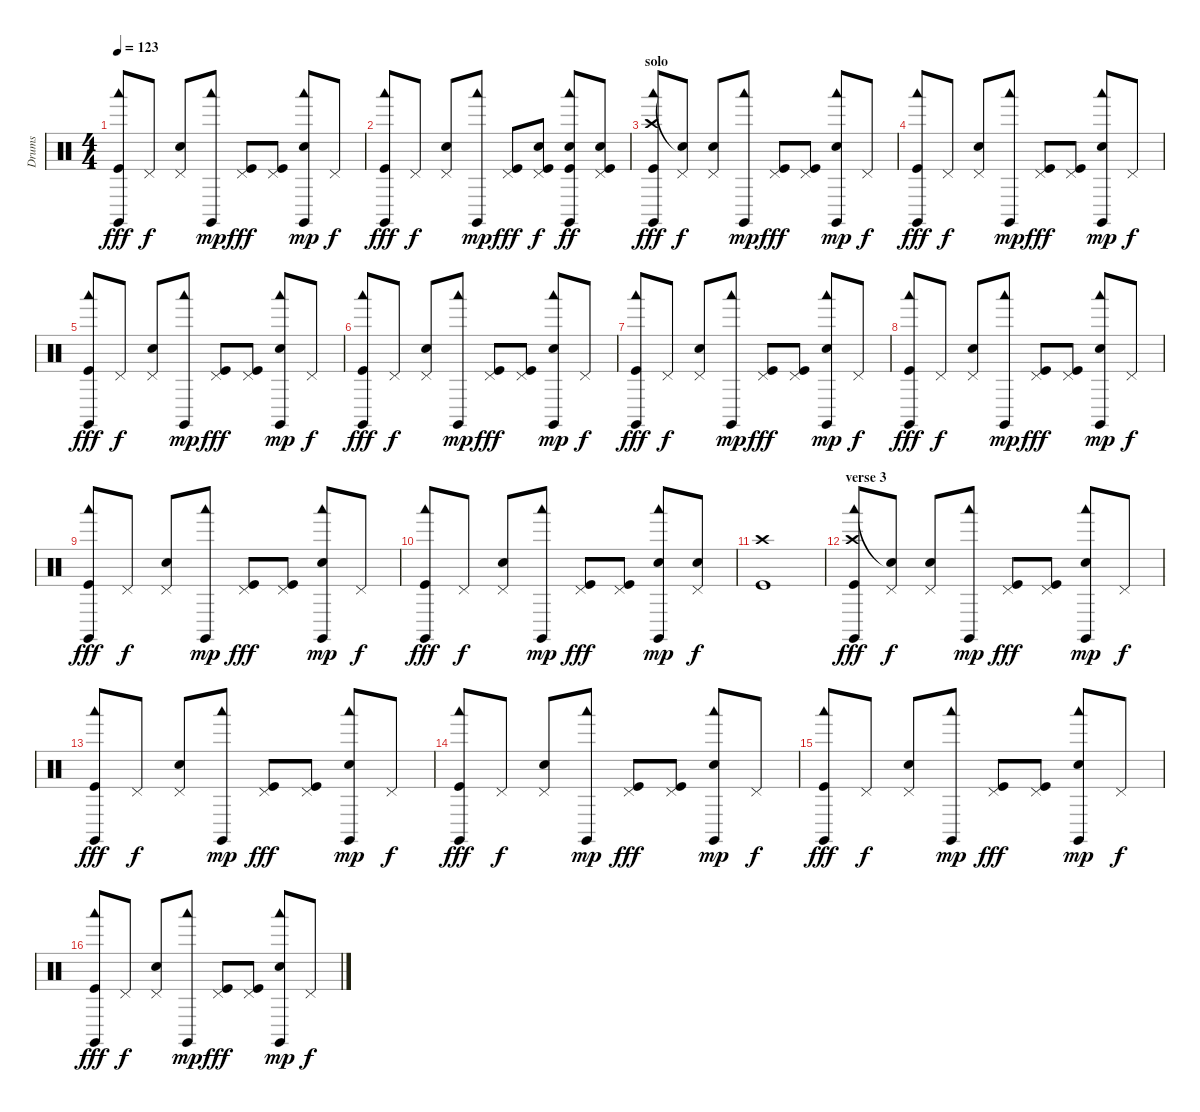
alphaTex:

\track ("Drums" "Drums") {instrument percussion}
\staff {score}
\articulation defaults
\ts (4 4)
\tempo 123
\clef neutral
\ks c
("Claves (hit)" "Woodblock low (hit)" "Kick (hit)").8{dy fff} "Pedal Hi-Hat (hit)".8{dy f} ("Pedal Hi-Hat (hit)" "Electric Snare (hit)").8 ("Claves (hit)" "Woodblock low (hit)").8{dy mp} ("Pedal Hi-Hat (hit)" "Kick (hit)").8{dy fff} ("Pedal Hi-Hat (hit)" "Kick (hit)").8 ("Claves (hit)" "Woodblock low (hit)" "Electric Snare (hit)").8{dy mp} "Pedal Hi-Hat (hit)".8{dy f} |
("Claves (hit)" "Woodblock low (hit)" "Kick (hit)").8{dy fff} "Pedal Hi-Hat (hit)".8{dy f} ("Pedal Hi-Hat (hit)" "Electric Snare (hit)").8 ("Claves (hit)" "Woodblock low (hit)").8{dy mp} ("Pedal Hi-Hat (hit)" "Kick (hit)").8{dy fff} ("Pedal Hi-Hat (hit)" "Electric Snare (hit)" "Kick (hit)").8{dy f} ("Claves (hit)" "Woodblock low (hit)" "Electric Snare (hit)" "Kick (hit)").8{dy ff} ("Pedal Hi-Hat (hit)" "Electric Snare (hit)" "Kick (hit)").8 |
\section ("" "solo")
("Claves (hit)" "Woodblock low (hit)" "Crash high (hit)" "Kick (hit)").8{dy fff} ("Pedal Hi-Hat (hit)" "Snare (hit)"{t}).8{dy f} ("Pedal Hi-Hat (hit)" "Electric Snare (hit)").8 ("Claves (hit)" "Woodblock low (hit)").8{dy mp} ("Pedal Hi-Hat (hit)" "Kick (hit)").8{dy fff} ("Pedal Hi-Hat (hit)" "Kick (hit)").8 ("Claves (hit)" "Woodblock low (hit)" "Electric Snare (hit)").8{dy mp} "Pedal Hi-Hat (hit)".8{dy f} |
("Claves (hit)" "Woodblock low (hit)" "Kick (hit)").8{dy fff} "Pedal Hi-Hat (hit)".8{dy f} ("Pedal Hi-Hat (hit)" "Electric Snare (hit)").8 ("Claves (hit)" "Woodblock low (hit)").8{dy mp} ("Pedal Hi-Hat (hit)" "Kick (hit)").8{dy fff} ("Pedal Hi-Hat (hit)" "Kick (hit)").8 ("Claves (hit)" "Woodblock low (hit)" "Electric Snare (hit)").8{dy mp} "Pedal Hi-Hat (hit)".8{dy f} |
("Claves (hit)" "Woodblock low (hit)" "Kick (hit)").8{dy fff} "Pedal Hi-Hat (hit)".8{dy f} ("Pedal Hi-Hat (hit)" "Electric Snare (hit)").8 ("Claves (hit)" "Woodblock low (hit)").8{dy mp} ("Pedal Hi-Hat (hit)" "Kick (hit)").8{dy fff} ("Pedal Hi-Hat (hit)" "Kick (hit)").8 ("Claves (hit)" "Woodblock low (hit)" "Electric Snare (hit)").8{dy mp} "Pedal Hi-Hat (hit)".8{dy f} |
("Claves (hit)" "Woodblock low (hit)" "Kick (hit)").8{dy fff} "Pedal Hi-Hat (hit)".8{dy f} ("Pedal Hi-Hat (hit)" "Electric Snare (hit)").8 ("Claves (hit)" "Woodblock low (hit)").8{dy mp} ("Pedal Hi-Hat (hit)" "Kick (hit)").8{dy fff} ("Pedal Hi-Hat (hit)" "Kick (hit)").8 ("Claves (hit)" "Woodblock low (hit)" "Electric Snare (hit)").8{dy mp} "Pedal Hi-Hat (hit)".8{dy f} |
("Claves (hit)" "Woodblock low (hit)" "Kick (hit)").8{dy fff} "Pedal Hi-Hat (hit)".8{dy f} ("Pedal Hi-Hat (hit)" "Electric Snare (hit)").8 ("Claves (hit)" "Woodblock low (hit)").8{dy mp} ("Pedal Hi-Hat (hit)" "Kick (hit)").8{dy fff} ("Pedal Hi-Hat (hit)" "Kick (hit)").8 ("Claves (hit)" "Woodblock low (hit)" "Electric Snare (hit)").8{dy mp} "Pedal Hi-Hat (hit)".8{dy f} |
("Claves (hit)" "Woodblock low (hit)" "Kick (hit)").8{dy fff} "Pedal Hi-Hat (hit)".8{dy f} ("Pedal Hi-Hat (hit)" "Electric Snare (hit)").8 ("Claves (hit)" "Woodblock low (hit)").8{dy mp} ("Pedal Hi-Hat (hit)" "Kick (hit)").8{dy fff} ("Pedal Hi-Hat (hit)" "Kick (hit)").8 ("Claves (hit)" "Woodblock low (hit)" "Electric Snare (hit)").8{dy mp} "Pedal Hi-Hat (hit)".8{dy f} |
("Claves (hit)" "Woodblock low (hit)" "Kick (hit)").8{dy fff} "Pedal Hi-Hat (hit)".8{dy f} ("Pedal Hi-Hat (hit)" "Electric Snare (hit)").8 ("Claves (hit)" "Woodblock low (hit)").8{dy mp} ("Pedal Hi-Hat (hit)" "Kick (hit)").8{dy fff} ("Pedal Hi-Hat (hit)" "Kick (hit)").8 ("Claves (hit)" "Woodblock low (hit)" "Electric Snare (hit)").8{dy mp} "Pedal Hi-Hat (hit)".8{dy f} |
("Claves (hit)" "Woodblock low (hit)" "Kick (hit)").8{dy fff} "Pedal Hi-Hat (hit)".8{dy f} ("Pedal Hi-Hat (hit)" "Electric Snare (hit)").8 ("Claves (hit)" "Woodblock low (hit)").8{dy mp} ("Pedal Hi-Hat (hit)" "Kick (hit)").8{dy fff} ("Pedal Hi-Hat (hit)" "Kick (hit)").8 ("Claves (hit)" "Woodblock low (hit)" "Electric Snare (hit)").8{dy mp} ("Pedal Hi-Hat (hit)" "Electric Snare (hit)").8{dy f} |
("Crash high (hit)" "Kick (hit)").1 |
\section ("" "verse 3")
("Claves (hit)" "Woodblock low (hit)" "Crash high (hit)" "Kick (hit)").8{dy fff} ("Pedal Hi-Hat (hit)" "Snare (hit)"{t}).8{dy f} ("Pedal Hi-Hat (hit)" "Electric Snare (hit)").8 ("Claves (hit)" "Woodblock low (hit)").8{dy mp} ("Pedal Hi-Hat (hit)" "Kick (hit)").8{dy fff} ("Pedal Hi-Hat (hit)" "Kick (hit)").8 ("Claves (hit)" "Woodblock low (hit)" "Electric Snare (hit)").8{dy mp} "Pedal Hi-Hat (hit)".8{dy f} |
("Claves (hit)" "Woodblock low (hit)" "Kick (hit)").8{dy fff} "Pedal Hi-Hat (hit)".8{dy f} ("Pedal Hi-Hat (hit)" "Electric Snare (hit)").8 ("Claves (hit)" "Woodblock low (hit)").8{dy mp} ("Pedal Hi-Hat (hit)" "Kick (hit)").8{dy fff} ("Pedal Hi-Hat (hit)" "Kick (hit)").8 ("Claves (hit)" "Woodblock low (hit)" "Electric Snare (hit)").8{dy mp} "Pedal Hi-Hat (hit)".8{dy f} |
("Claves (hit)" "Woodblock low (hit)" "Kick (hit)").8{dy fff} "Pedal Hi-Hat (hit)".8{dy f} ("Pedal Hi-Hat (hit)" "Electric Snare (hit)").8 ("Claves (hit)" "Woodblock low (hit)").8{dy mp} ("Pedal Hi-Hat (hit)" "Kick (hit)").8{dy fff} ("Pedal Hi-Hat (hit)" "Kick (hit)").8 ("Claves (hit)" "Woodblock low (hit)" "Electric Snare (hit)").8{dy mp} "Pedal Hi-Hat (hit)".8{dy f} |
("Claves (hit)" "Woodblock low (hit)" "Kick (hit)").8{dy fff} "Pedal Hi-Hat (hit)".8{dy f} ("Pedal Hi-Hat (hit)" "Electric Snare (hit)").8 ("Claves (hit)" "Woodblock low (hit)").8{dy mp} ("Pedal Hi-Hat (hit)" "Kick (hit)").8{dy fff} ("Pedal Hi-Hat (hit)" "Kick (hit)").8 ("Claves (hit)" "Woodblock low (hit)" "Electric Snare (hit)").8{dy mp} "Pedal Hi-Hat (hit)".8{dy f} |
("Claves (hit)" "Woodblock low (hit)" "Kick (hit)").8{dy fff} "Pedal Hi-Hat (hit)".8{dy f} ("Pedal Hi-Hat (hit)" "Electric Snare (hit)").8 ("Claves (hit)" "Woodblock low (hit)").8{dy mp} ("Pedal Hi-Hat (hit)" "Kick (hit)").8{dy fff} ("Pedal Hi-Hat (hit)" "Kick (hit)").8 ("Claves (hit)" "Woodblock low (hit)" "Electric Snare (hit)").8{dy mp} "Pedal Hi-Hat (hit)".8{dy f}
